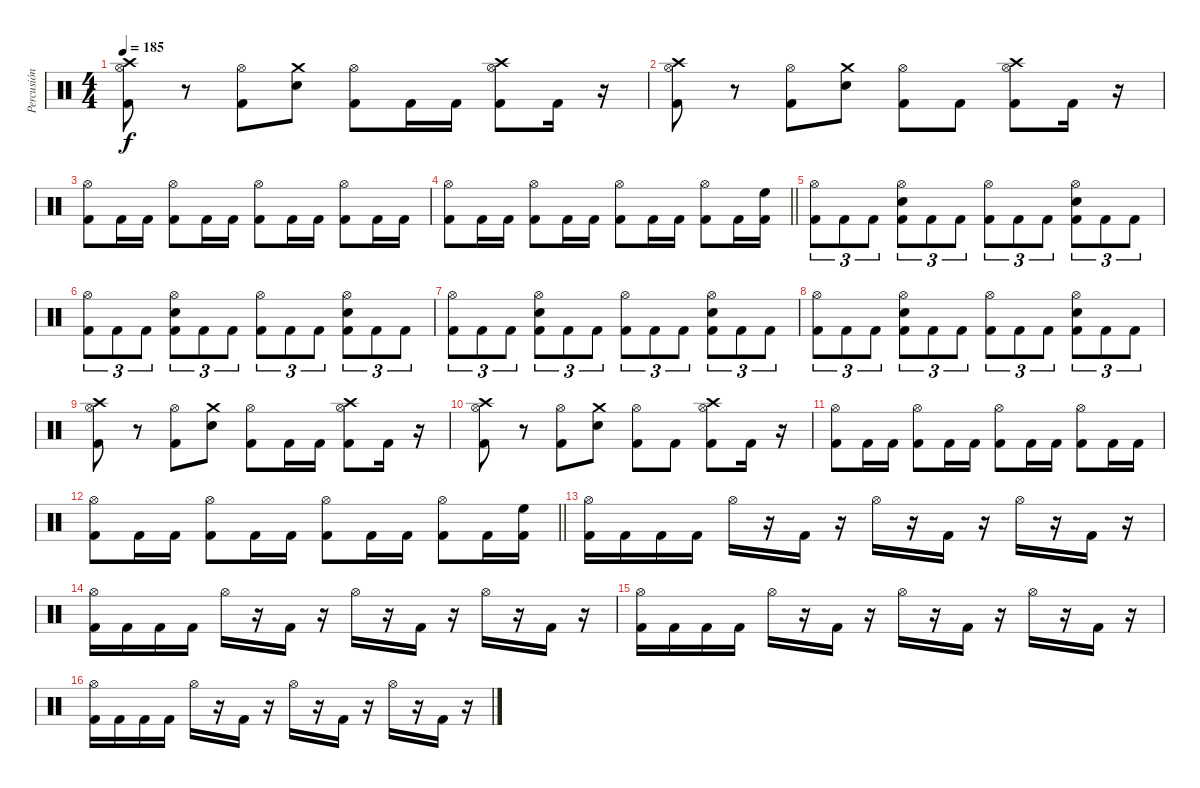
\track ("Percusión" "Percusión") {instrument percussion}
\staff {score}
\articulation defaults
\ts (4 4)
\tempo 185
\clef neutral
\ks c
("Crash high (hit)" "Hi-Hat (open)" "Kick (hit) 2").8{dy f} r.8 ("Hi-Hat (open)" "Kick (hit) 2").8 ("Crash medium (hit)" "Snare (hit) 2").8 ("Hi-Hat (open)" "Kick (hit) 2").8 "Kick (hit) 2".16 "Kick (hit) 2".16 ("Crash high (hit)" "Hi-Hat (open)" "Kick (hit) 2").8 "Kick (hit) 2".16 r.16 |
("Crash high (hit)" "Hi-Hat (open)" "Kick (hit) 2").8 r.8 ("Hi-Hat (open)" "Kick (hit) 2").8 ("Crash medium (hit)" "Snare (hit) 2").8 ("Hi-Hat (open)" "Kick (hit) 2").8 "Kick (hit) 2".8 ("Crash high (hit)" "Hi-Hat (open)" "Kick (hit) 2").8 "Kick (hit) 2".16 r.16 |
("Hi-Hat (open)" "Kick (hit) 2").8 "Kick (hit) 2".16 "Kick (hit) 2".16 ("Hi-Hat (open)" "Kick (hit) 2").8 "Kick (hit) 2".16 "Kick (hit) 2".16 ("Hi-Hat (open)" "Kick (hit) 2").8 "Kick (hit) 2".16 "Kick (hit) 2".16 ("Hi-Hat (open)" "Kick (hit) 2").8 "Kick (hit) 2".16 "Kick (hit) 2".16 |
\barLineRight lightlight
("Hi-Hat (open)" "Kick (hit) 2").8 "Kick (hit) 2".16 "Kick (hit) 2".16 ("Hi-Hat (open)" "Kick (hit) 2").8 "Kick (hit) 2".16 "Kick (hit) 2".16 ("Hi-Hat (open)" "Kick (hit) 2").8 "Kick (hit) 2".16 "Kick (hit) 2".16 ("Hi-Hat (open)" "Kick (hit) 2").8 "Kick (hit) 2".16 ("High Floor Tom (hit)" "Kick (hit) 2").16 |
("Hi-Hat (open)" "Kick (hit) 2").8{tu (3 2)} "Kick (hit) 2".8{tu (3 2)} "Kick (hit) 2".8{tu (3 2)} ("Hi-Hat (open)" "Snare (hit) 2" "Kick (hit) 2").8{tu (3 2)} "Kick (hit) 2".8{tu (3 2)} "Kick (hit) 2".8{tu (3 2)} ("Hi-Hat (open)" "Kick (hit) 2").8{tu (3 2)} "Kick (hit) 2".8{tu (3 2)} "Kick (hit) 2".8{tu (3 2)} ("Hi-Hat (open)" "Snare (hit) 2" "Kick (hit) 2").8{tu (3 2)} "Kick (hit) 2".8{tu (3 2)} "Kick (hit) 2".8{tu (3 2)} |
("Hi-Hat (open)" "Kick (hit) 2").8{tu (3 2)} "Kick (hit) 2".8{tu (3 2)} "Kick (hit) 2".8{tu (3 2)} ("Hi-Hat (open)" "Snare (hit) 2" "Kick (hit) 2").8{tu (3 2)} "Kick (hit) 2".8{tu (3 2)} "Kick (hit) 2".8{tu (3 2)} ("Hi-Hat (open)" "Kick (hit) 2").8{tu (3 2)} "Kick (hit) 2".8{tu (3 2)} "Kick (hit) 2".8{tu (3 2)} ("Hi-Hat (open)" "Snare (hit) 2" "Kick (hit) 2").8{tu (3 2)} "Kick (hit) 2".8{tu (3 2)} "Kick (hit) 2".8{tu (3 2)} |
("Hi-Hat (open)" "Kick (hit) 2").8{tu (3 2)} "Kick (hit) 2".8{tu (3 2)} "Kick (hit) 2".8{tu (3 2)} ("Hi-Hat (open)" "Snare (hit) 2" "Kick (hit) 2").8{tu (3 2)} "Kick (hit) 2".8{tu (3 2)} "Kick (hit) 2".8{tu (3 2)} ("Hi-Hat (open)" "Kick (hit) 2").8{tu (3 2)} "Kick (hit) 2".8{tu (3 2)} "Kick (hit) 2".8{tu (3 2)} ("Hi-Hat (open)" "Snare (hit) 2" "Kick (hit) 2").8{tu (3 2)} "Kick (hit) 2".8{tu (3 2)} "Kick (hit) 2".8{tu (3 2)} |
("Hi-Hat (open)" "Kick (hit) 2").8{tu (3 2)} "Kick (hit) 2".8{tu (3 2)} "Kick (hit) 2".8{tu (3 2)} ("Hi-Hat (open)" "Snare (hit) 2" "Kick (hit) 2").8{tu (3 2)} "Kick (hit) 2".8{tu (3 2)} "Kick (hit) 2".8{tu (3 2)} ("Hi-Hat (open)" "Kick (hit) 2").8{tu (3 2)} "Kick (hit) 2".8{tu (3 2)} "Kick (hit) 2".8{tu (3 2)} ("Hi-Hat (open)" "Snare (hit) 2" "Kick (hit) 2").8{tu (3 2)} "Kick (hit) 2".8{tu (3 2)} "Kick (hit) 2".8{tu (3 2)} |
("Crash high (hit)" "Hi-Hat (open)" "Kick (hit) 2").8 r.8 ("Hi-Hat (open)" "Kick (hit) 2").8 ("Crash medium (hit)" "Snare (hit) 2").8 ("Hi-Hat (open)" "Kick (hit) 2").8 "Kick (hit) 2".16 "Kick (hit) 2".16 ("Crash high (hit)" "Hi-Hat (open)" "Kick (hit) 2").8 "Kick (hit) 2".16 r.16 |
("Crash high (hit)" "Hi-Hat (open)" "Kick (hit) 2").8 r.8 ("Hi-Hat (open)" "Kick (hit) 2").8 ("Crash medium (hit)" "Snare (hit) 2").8 ("Hi-Hat (open)" "Kick (hit) 2").8 "Kick (hit) 2".8 ("Crash high (hit)" "Hi-Hat (open)" "Kick (hit) 2").8 "Kick (hit) 2".16 r.16 |
("Hi-Hat (open)" "Kick (hit) 2").8 "Kick (hit) 2".16 "Kick (hit) 2".16 ("Hi-Hat (open)" "Kick (hit) 2").8 "Kick (hit) 2".16 "Kick (hit) 2".16 ("Hi-Hat (open)" "Kick (hit) 2").8 "Kick (hit) 2".16 "Kick (hit) 2".16 ("Hi-Hat (open)" "Kick (hit) 2").8 "Kick (hit) 2".16 "Kick (hit) 2".16 |
\barLineRight lightlight
("Hi-Hat (open)" "Kick (hit) 2").8 "Kick (hit) 2".16 "Kick (hit) 2".16 ("Hi-Hat (open)" "Kick (hit) 2").8 "Kick (hit) 2".16 "Kick (hit) 2".16 ("Hi-Hat (open)" "Kick (hit) 2").8 "Kick (hit) 2".16 "Kick (hit) 2".16 ("Hi-Hat (open)" "Kick (hit) 2").8 "Kick (hit) 2".16 ("High Floor Tom (hit)" "Kick (hit) 2").16 |
("Hi-Hat (open)" "Kick (hit) 2").16 "Kick (hit) 2".16 "Kick (hit) 2".16 "Kick (hit) 2".16 "Hi-Hat (open)".16 r.16 "Kick (hit) 2".16 r.16 "Hi-Hat (open)".16 r.16 "Kick (hit) 2".16 r.16 "Hi-Hat (open)".16 r.16 "Kick (hit) 2".16 r.16 |
("Hi-Hat (open)" "Kick (hit) 2").16 "Kick (hit) 2".16 "Kick (hit) 2".16 "Kick (hit) 2".16 "Hi-Hat (open)".16 r.16 "Kick (hit) 2".16 r.16 "Hi-Hat (open)".16 r.16 "Kick (hit) 2".16 r.16 "Hi-Hat (open)".16 r.16 "Kick (hit) 2".16 r.16 |
("Hi-Hat (open)" "Kick (hit) 2").16 "Kick (hit) 2".16 "Kick (hit) 2".16 "Kick (hit) 2".16 "Hi-Hat (open)".16 r.16 "Kick (hit) 2".16 r.16 "Hi-Hat (open)".16 r.16 "Kick (hit) 2".16 r.16 "Hi-Hat (open)".16 r.16 "Kick (hit) 2".16 r.16 |
("Hi-Hat (open)" "Kick (hit) 2").16 "Kick (hit) 2".16 "Kick (hit) 2".16 "Kick (hit) 2".16 "Hi-Hat (open)".16 r.16 "Kick (hit) 2".16 r.16 "Hi-Hat (open)".16 r.16 "Kick (hit) 2".16 r.16 "Hi-Hat (open)".16 r.16 "Kick (hit) 2".16 r.16
